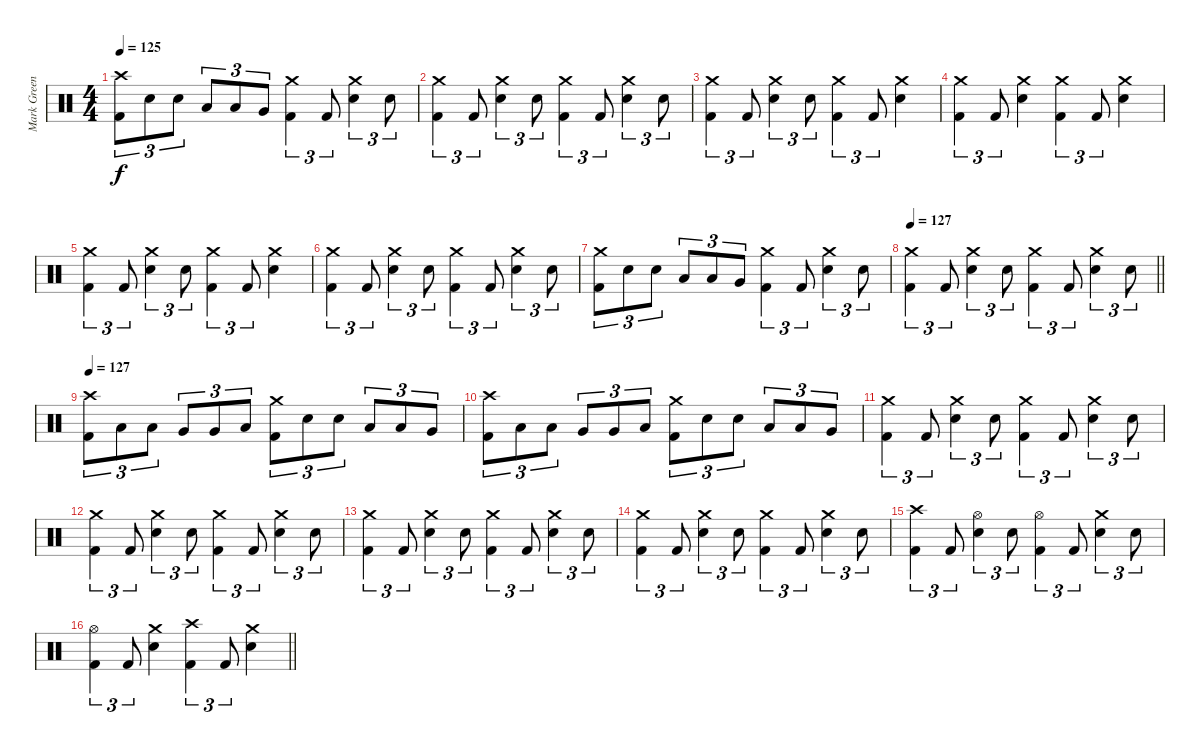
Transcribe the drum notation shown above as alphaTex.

\track ("Mark Greening" "Mark Green") {instrument percussion}
\staff {score}
\articulation defaults
\ts (4 4)
\section ("" "")
\tempo 125
\clef neutral
\ks c
("Crash high (hit)" "Kick (hit) 2").8{tu (3 2) dy f} "Electric Snare (hit)".8{tu (3 2)} "Electric Snare (hit)".8{tu (3 2)} "Low Tom (hit)".8{tu (3 2)} "Low Tom (hit)".8{tu (3 2)} "Very Low Tom (hit)".8{tu (3 2)} ("Crash medium (hit)" "Kick (hit) 2").4{tu (3 2)} "Kick (hit) 2".8{tu (3 2)} ("Crash medium (hit)" "Electric Snare (hit)").4{tu (3 2)} "Electric Snare (hit)".8{tu (3 2)} |
("Crash medium (hit)" "Kick (hit) 2").4{tu (3 2)} "Kick (hit) 2".8{tu (3 2)} ("Crash medium (hit)" "Electric Snare (hit)").4{tu (3 2)} "Electric Snare (hit)".8{tu (3 2)} ("Crash medium (hit)" "Kick (hit) 2").4{tu (3 2)} "Kick (hit) 2".8{tu (3 2)} ("Crash medium (hit)" "Electric Snare (hit)").4{tu (3 2)} "Electric Snare (hit)".8{tu (3 2)} |
("Crash medium (hit)" "Kick (hit) 2").4{tu (3 2)} "Kick (hit) 2".8{tu (3 2)} ("Crash medium (hit)" "Electric Snare (hit)").4{tu (3 2)} "Electric Snare (hit)".8{tu (3 2)} ("Crash medium (hit)" "Kick (hit) 2").4{tu (3 2)} "Kick (hit) 2".8{tu (3 2)} ("Crash medium (hit)" "Electric Snare (hit)").4 |
("Crash medium (hit)" "Kick (hit) 2").4{tu (3 2)} "Kick (hit) 2".8{tu (3 2)} ("Crash medium (hit)" "Electric Snare (hit)").4 ("Crash medium (hit)" "Kick (hit) 2").4{tu (3 2)} "Kick (hit) 2".8{tu (3 2)} ("Crash medium (hit)" "Electric Snare (hit)").4 |
("Crash medium (hit)" "Kick (hit) 2").4{tu (3 2)} "Kick (hit) 2".8{tu (3 2)} ("Crash medium (hit)" "Electric Snare (hit)").4{tu (3 2)} "Electric Snare (hit)".8{tu (3 2)} ("Crash medium (hit)" "Kick (hit) 2").4{tu (3 2)} "Kick (hit) 2".8{tu (3 2)} ("Crash medium (hit)" "Electric Snare (hit)").4 |
("Crash medium (hit)" "Kick (hit) 2").4{tu (3 2)} "Kick (hit) 2".8{tu (3 2)} ("Crash medium (hit)" "Electric Snare (hit)").4{tu (3 2)} "Electric Snare (hit)".8{tu (3 2)} ("Crash medium (hit)" "Kick (hit) 2").4{tu (3 2)} "Kick (hit) 2".8{tu (3 2)} ("Crash medium (hit)" "Electric Snare (hit)").4{tu (3 2)} "Electric Snare (hit)".8{tu (3 2)} |
("Crash medium (hit)" "Kick (hit) 2").8{tu (3 2)} "Electric Snare (hit)".8{tu (3 2)} "Electric Snare (hit)".8{tu (3 2)} "Low Tom (hit)".8{tu (3 2)} "Low Tom (hit)".8{tu (3 2)} "Very Low Tom (hit)".8{tu (3 2)} ("Crash medium (hit)" "Kick (hit) 2").4{tu (3 2)} "Kick (hit) 2".8{tu (3 2)} ("Crash medium (hit)" "Electric Snare (hit)").4{tu (3 2)} "Electric Snare (hit)".8{tu (3 2)} |
\tempo 127
\barLineRight lightlight
("Crash medium (hit)" "Kick (hit) 2").4{tu (3 2)} "Kick (hit) 2".8{tu (3 2)} ("Crash medium (hit)" "Electric Snare (hit)").4{tu (3 2)} "Electric Snare (hit)".8{tu (3 2)} ("Crash medium (hit)" "Kick (hit) 2").4{tu (3 2)} "Kick (hit) 2".8{tu (3 2)} ("Crash medium (hit)" "Electric Snare (hit)").4{tu (3 2)} "Electric Snare (hit)".8{tu (3 2)} |
\section ("" "")
\tempo 127
("Crash high (hit)" "Kick (hit) 2").8{tu (3 2)} "Low Tom (hit)".8{tu (3 2)} "Low Tom (hit)".8{tu (3 2)} "Very Low Tom (hit)".8{tu (3 2)} "Very Low Tom (hit)".8{tu (3 2)} "Low Floor Tom (hit)".8{tu (3 2)} ("Crash medium (hit)" "Kick (hit) 2").8{tu (3 2)} "Electric Snare (hit)".8{tu (3 2)} "Electric Snare (hit)".8{tu (3 2)} "Low Tom (hit)".8{tu (3 2)} "Low Tom (hit)".8{tu (3 2)} "Very Low Tom (hit)".8{tu (3 2)} |
("Crash high (hit)" "Kick (hit) 2").8{tu (3 2)} "Low Tom (hit)".8{tu (3 2)} "Low Tom (hit)".8{tu (3 2)} "Very Low Tom (hit)".8{tu (3 2)} "Very Low Tom (hit)".8{tu (3 2)} "Low Floor Tom (hit)".8{tu (3 2)} ("Crash medium (hit)" "Kick (hit) 2").8{tu (3 2)} "Electric Snare (hit)".8{tu (3 2)} "Electric Snare (hit)".8{tu (3 2)} "Low Tom (hit)".8{tu (3 2)} "Low Tom (hit)".8{tu (3 2)} "Very Low Tom (hit)".8{tu (3 2)} |
("Crash medium (hit)" "Kick (hit) 2").4{tu (3 2)} "Kick (hit) 2".8{tu (3 2)} ("Crash medium (hit)" "Electric Snare (hit)").4{tu (3 2)} "Electric Snare (hit)".8{tu (3 2)} ("Crash medium (hit)" "Kick (hit) 2").4{tu (3 2)} "Kick (hit) 2".8{tu (3 2)} ("Crash medium (hit)" "Electric Snare (hit)").4{tu (3 2)} "Electric Snare (hit)".8{tu (3 2)} |
("Crash medium (hit)" "Kick (hit) 2").4{tu (3 2)} "Kick (hit) 2".8{tu (3 2)} ("Crash medium (hit)" "Electric Snare (hit)").4{tu (3 2)} "Electric Snare (hit)".8{tu (3 2)} ("Crash medium (hit)" "Kick (hit) 2").4{tu (3 2)} "Kick (hit) 2".8{tu (3 2)} ("Crash medium (hit)" "Electric Snare (hit)").4{tu (3 2)} "Electric Snare (hit)".8{tu (3 2)} |
("Crash medium (hit)" "Kick (hit) 2").4{tu (3 2)} "Kick (hit) 2".8{tu (3 2)} ("Crash medium (hit)" "Electric Snare (hit)").4{tu (3 2)} "Electric Snare (hit)".8{tu (3 2)} ("Crash medium (hit)" "Kick (hit) 2").4{tu (3 2)} "Kick (hit) 2".8{tu (3 2)} ("Crash medium (hit)" "Electric Snare (hit)").4{tu (3 2)} "Electric Snare (hit)".8{tu (3 2)} |
("Crash medium (hit)" "Kick (hit) 2").4{tu (3 2)} "Kick (hit) 2".8{tu (3 2)} ("Crash medium (hit)" "Electric Snare (hit)").4{tu (3 2)} "Electric Snare (hit)".8{tu (3 2)} ("Crash medium (hit)" "Kick (hit) 2").4{tu (3 2)} "Kick (hit) 2".8{tu (3 2)} ("Crash medium (hit)" "Electric Snare (hit)").4{tu (3 2)} "Electric Snare (hit)".8{tu (3 2)} |
("Crash high (hit)" "Kick (hit) 2").4{tu (3 2)} "Kick (hit) 2".8{tu (3 2)} ("Hi-Hat (open)" "Electric Snare (hit)").4{tu (3 2)} "Electric Snare (hit)".8{tu (3 2)} ("Hi-Hat (open)" "Kick (hit) 2").4{tu (3 2)} "Kick (hit) 2".8{tu (3 2)} ("Crash medium (hit)" "Electric Snare (hit)").4{tu (3 2)} "Electric Snare (hit)".8{tu (3 2)} |
\barLineRight lightlight
("Hi-Hat (open)" "Kick (hit) 2").4{tu (3 2)} "Kick (hit) 2".8{tu (3 2)} ("Crash medium (hit)" "Electric Snare (hit)").4 ("Crash high (hit)" "Kick (hit) 2").4{tu (3 2)} "Kick (hit) 2".8{tu (3 2)} ("Crash medium (hit)" "Electric Snare (hit)").4
